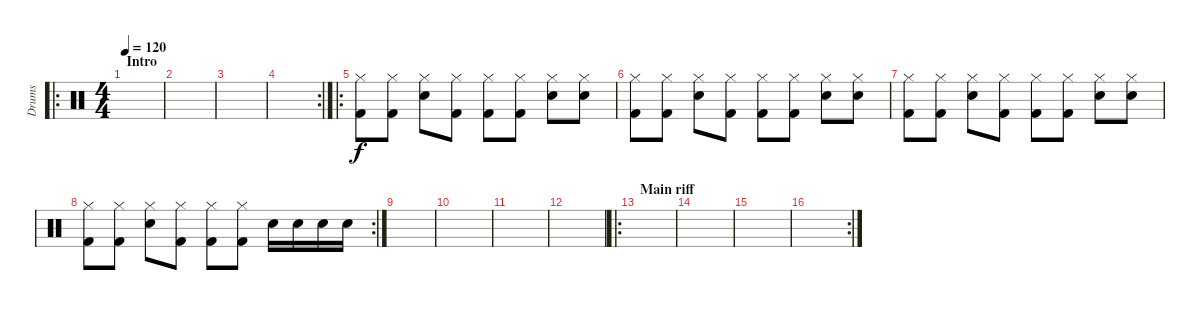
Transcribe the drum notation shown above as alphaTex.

\track ("Drums" "Drums") {instrument percussion}
\staff {score}
\articulation defaults
\ro
\ts (4 4)
\section ("" "Intro ")
\tempo 120
\clef neutral
\ks c
|
|
|
\rc 2
|
\ro
("Hi-Hat (closed)" "Kick (hit) 2").8 ("Hi-Hat (closed)" "Kick (hit) 2").8 ("Hi-Hat (closed)" "Snare (hit) 2").8 ("Hi-Hat (closed)" "Kick (hit) 2").8 ("Hi-Hat (closed)" "Kick (hit) 2").8 ("Hi-Hat (closed)" "Kick (hit) 2").8 ("Hi-Hat (closed)" "Snare (hit) 2").8 ("Hi-Hat (closed)" "Snare (hit) 2").8 |
("Hi-Hat (closed)" "Kick (hit) 2").8 ("Hi-Hat (closed)" "Kick (hit) 2").8 ("Hi-Hat (closed)" "Snare (hit) 2").8 ("Hi-Hat (closed)" "Kick (hit) 2").8 ("Hi-Hat (closed)" "Kick (hit) 2").8 ("Hi-Hat (closed)" "Kick (hit) 2").8 ("Hi-Hat (closed)" "Snare (hit) 2").8 ("Hi-Hat (closed)" "Snare (hit) 2").8 |
("Hi-Hat (closed)" "Kick (hit) 2").8 ("Hi-Hat (closed)" "Kick (hit) 2").8 ("Hi-Hat (closed)" "Snare (hit) 2").8 ("Hi-Hat (closed)" "Kick (hit) 2").8 ("Hi-Hat (closed)" "Kick (hit) 2").8 ("Hi-Hat (closed)" "Kick (hit) 2").8 ("Hi-Hat (closed)" "Snare (hit) 2").8 ("Hi-Hat (closed)" "Snare (hit) 2").8 |
\rc 2
("Hi-Hat (closed)" "Kick (hit) 2").8 ("Hi-Hat (closed)" "Kick (hit) 2").8 ("Hi-Hat (closed)" "Snare (hit) 2").8 ("Hi-Hat (closed)" "Kick (hit) 2").8 ("Hi-Hat (closed)" "Kick (hit) 2").8 ("Hi-Hat (closed)" "Kick (hit) 2").8 "Snare (hit) 2".16 "Snare (hit) 2".16 "Snare (hit) 2".16 "Snare (hit) 2".16 |
|
|
|
|
\ro
\section ("" "Main riff")
|
|
|
\rc 2
